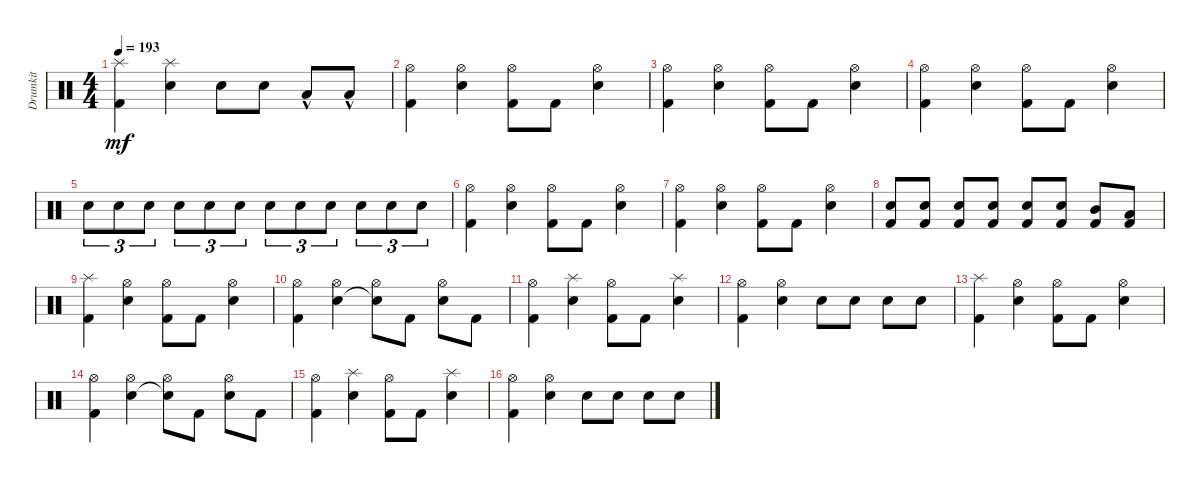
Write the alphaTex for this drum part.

\track ("Drumkit" "Drumkit") {instrument percussion}
\staff {score}
\articulation defaults
\ts (4 4)
\tempo 193
\clef neutral
\ks c
("Kick (hit) 2" "Splash (hit)").4{dy mf} ("Snare (hit) 2" "Splash (hit)").4 "Snare (hit) 2".8 "Snare (hit) 2".8 "Low Tom (hit)"{hac}.8 "Low Tom (hit)"{hac}.8 |
("Kick (hit) 2" "Hi-Hat (open)").4 ("Snare (hit) 2" "Hi-Hat (open)").4 ("Kick (hit) 2" "Hi-Hat (open)").8 "Kick (hit) 2".8 ("Snare (hit) 2" "Hi-Hat (open)").4 |
("Kick (hit) 2" "Hi-Hat (open)").4 ("Snare (hit) 2" "Hi-Hat (open)").4 ("Kick (hit) 2" "Hi-Hat (open)").8 "Kick (hit) 2".8 ("Snare (hit) 2" "Hi-Hat (open)").4 |
("Kick (hit) 2" "Hi-Hat (open)").4 ("Snare (hit) 2" "Hi-Hat (open)").4 ("Kick (hit) 2" "Hi-Hat (open)").8 "Kick (hit) 2".8 ("Snare (hit) 2" "Hi-Hat (open)").4 |
"Snare (hit) 2".8{tu (3 2)} "Snare (hit) 2".8{tu (3 2)} "Snare (hit) 2".8{tu (3 2)} "Snare (hit) 2".8{tu (3 2)} "Snare (hit) 2".8{tu (3 2)} "Snare (hit) 2".8{tu (3 2)} "Snare (hit) 2".8{tu (3 2)} "Snare (hit) 2".8{tu (3 2)} "Snare (hit) 2".8{tu (3 2)} "Snare (hit) 2".8{tu (3 2)} "Snare (hit) 2".8{tu (3 2)} "Snare (hit) 2".8{tu (3 2)} |
("Kick (hit) 2" "Hi-Hat (open)").4 ("Snare (hit) 2" "Hi-Hat (open)").4 ("Kick (hit) 2" "Hi-Hat (open)").8 "Kick (hit) 2".8 ("Snare (hit) 2" "Hi-Hat (open)").4 |
("Kick (hit) 2" "Hi-Hat (open)").4 ("Snare (hit) 2" "Hi-Hat (open)").4 ("Kick (hit) 2" "Hi-Hat (open)").8 "Kick (hit) 2".8 ("Snare (hit) 2" "Hi-Hat (open)").4 |
("Snare (hit) 2" "Kick (hit) 2").8 ("Snare (hit) 2" "Kick (hit) 2").8 ("Snare (hit) 2" "Kick (hit) 2").8 ("Snare (hit) 2" "Kick (hit) 2").8 ("Snare (hit) 2" "Kick (hit) 2").8 ("Snare (hit) 2" "Kick (hit) 2").8 ("Kick (hit) 2" "Mid Tom (hit)").8 ("Kick (hit) 2" "Low Tom (hit)").8 |
("Kick (hit) 2" "Splash (hit)").4 ("Snare (hit) 2" "Hi-Hat (open)").4 ("Kick (hit) 2" "Hi-Hat (open)").8 "Kick (hit) 2".8 ("Snare (hit) 2" "Hi-Hat (open)").4 |
("Kick (hit) 2" "Hi-Hat (open)").4 ("Snare (hit) 2" "Hi-Hat (open)").4 ("Snare (hit) 2"{t} "Hi-Hat (open)").8 "Kick (hit) 2".8 ("Snare (hit) 2" "Hi-Hat (open)").8 "Kick (hit) 2".8 |
("Kick (hit) 2" "Hi-Hat (open)").4 ("Snare (hit) 2" "Splash (hit)").4 ("Kick (hit) 2" "Hi-Hat (open)").8 "Kick (hit) 2".8 ("Snare (hit) 2" "Splash (hit)").4 |
("Kick (hit) 2" "Hi-Hat (open)").4 ("Snare (hit) 2" "Hi-Hat (open)").4 "Snare (hit) 2".8 "Snare (hit) 2".8 "Snare (hit) 2".8 "Snare (hit) 2".8 |
("Kick (hit) 2" "Splash (hit)").4 ("Snare (hit) 2" "Hi-Hat (open)").4 ("Kick (hit) 2" "Hi-Hat (open)").8 "Kick (hit) 2".8 ("Snare (hit) 2" "Hi-Hat (open)").4 |
("Kick (hit) 2" "Hi-Hat (open)").4 ("Snare (hit) 2" "Hi-Hat (open)").4 ("Snare (hit) 2"{t} "Hi-Hat (open)").8 "Kick (hit) 2".8 ("Snare (hit) 2" "Hi-Hat (open)").8 "Kick (hit) 2".8 |
("Kick (hit) 2" "Hi-Hat (open)").4 ("Snare (hit) 2" "Splash (hit)").4 ("Kick (hit) 2" "Hi-Hat (open)").8 "Kick (hit) 2".8 ("Snare (hit) 2" "Splash (hit)").4 |
("Kick (hit) 2" "Hi-Hat (open)").4 ("Snare (hit) 2" "Hi-Hat (open)").4 "Snare (hit) 2".8 "Snare (hit) 2".8 "Snare (hit) 2".8 "Snare (hit) 2".8
